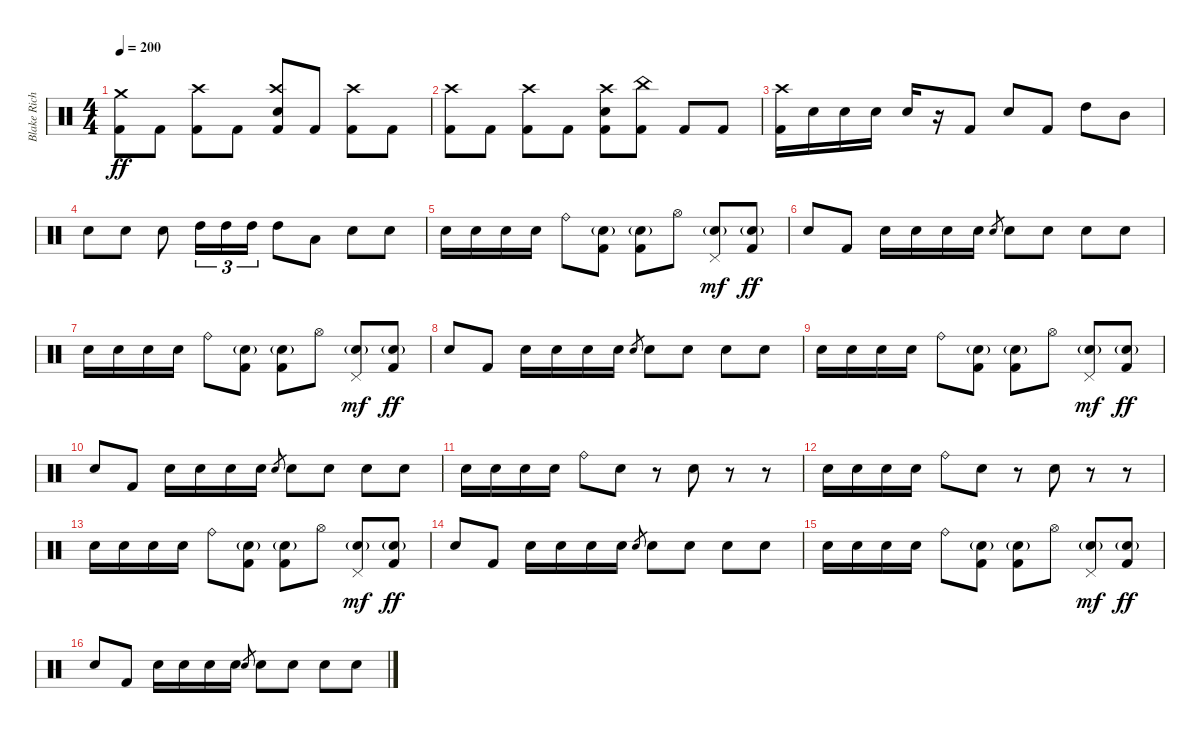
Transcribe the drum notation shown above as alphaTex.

\track ("Blake Richardson" "Blake Rich") {instrument percussion}
\staff {score}
\articulation defaults
\ts (4 4)
\tempo 200
\clef neutral
\ks c
("Crash medium (hit)" "Kick (hit) 2").8{dy ff} "Kick (hit) 2".8 ("Crash high (hit)" "Kick (hit) 2").8 "Kick (hit) 2".8 ("Crash high (hit)" "Electric Snare (hit)" "Kick (hit) 2").8 "Kick (hit) 2".8 ("Crash high (hit)" "Kick (hit) 2").8 "Kick (hit) 2".8 |
("Crash high (hit)" "Kick (hit) 2").8 "Kick (hit) 2".8 ("Crash high (hit)" "Kick (hit) 2").8 "Kick (hit) 2".8 ("Crash high (hit)" "Electric Snare (hit)" "Kick (hit) 2").8 ("China (hit)" "Kick (hit) 2").8 "Kick (hit) 2".8 "Kick (hit) 2".8 |
("Crash high (hit)" "Kick (hit) 2").16 "Electric Snare (hit)".16 "Electric Snare (hit)".16 "Electric Snare (hit)".16 "Electric Snare (hit)".16 r.16 "Kick (hit) 2".8 "Electric Snare (hit)".8 "Kick (hit) 2".8 "High Tom (hit)".8 "Mid Tom (hit)".8 |
"Electric Snare (hit)".8 "Electric Snare (hit)".8 "Electric Snare (hit)".8 "High Tom (hit)".16{tu (3 2)} "High Tom (hit)".16{tu (3 2)} "High Tom (hit)".16{tu (3 2)} "High Tom (hit)".8 "Low Tom (hit)".8 "Electric Snare (hit)".8 "Electric Snare (hit)".8 |
"Electric Snare (hit)".16 "Electric Snare (hit)".16 "Electric Snare (hit)".16 "Electric Snare (hit)".16 "Ride (bell)".8 ("Electric Snare (hit)"{g} "Kick (hit) 2").8 ("Electric Snare (hit)"{g} "Kick (hit) 2").8 "Hi-Hat (open)".8 ("Pedal Hi-Hat (hit)" "Electric Snare (hit)"{g}).8{dy mf} ("Electric Snare (hit)"{g} "Kick (hit) 2").8{dy ff} |
"Electric Snare (hit)".8 "Kick (hit) 2".8 "Electric Snare (hit)".16 "Electric Snare (hit)".16 "Electric Snare (hit)".16 "Electric Snare (hit)".16 "Electric Snare (hit)".8{gr} "Electric Snare (hit)".8 "Electric Snare (hit)".8 "Electric Snare (hit)".8 "Electric Snare (hit)".8 |
"Electric Snare (hit)".16 "Electric Snare (hit)".16 "Electric Snare (hit)".16 "Electric Snare (hit)".16 "Ride (bell)".8 ("Electric Snare (hit)"{g} "Kick (hit) 2").8 ("Electric Snare (hit)"{g} "Kick (hit) 2").8 "Hi-Hat (open)".8 ("Pedal Hi-Hat (hit)" "Electric Snare (hit)"{g}).8{dy mf} ("Electric Snare (hit)"{g} "Kick (hit) 2").8{dy ff} |
"Electric Snare (hit)".8 "Kick (hit) 2".8 "Electric Snare (hit)".16 "Electric Snare (hit)".16 "Electric Snare (hit)".16 "Electric Snare (hit)".16 "Electric Snare (hit)".8{gr} "Electric Snare (hit)".8 "Electric Snare (hit)".8 "Electric Snare (hit)".8 "Electric Snare (hit)".8 |
"Electric Snare (hit)".16 "Electric Snare (hit)".16 "Electric Snare (hit)".16 "Electric Snare (hit)".16 "Ride (bell)".8 ("Electric Snare (hit)"{g} "Kick (hit) 2").8 ("Electric Snare (hit)"{g} "Kick (hit) 2").8 "Hi-Hat (open)".8 ("Pedal Hi-Hat (hit)" "Electric Snare (hit)"{g}).8{dy mf} ("Electric Snare (hit)"{g} "Kick (hit) 2").8{dy ff} |
"Electric Snare (hit)".8 "Kick (hit) 2".8 "Electric Snare (hit)".16 "Electric Snare (hit)".16 "Electric Snare (hit)".16 "Electric Snare (hit)".16 "Electric Snare (hit)".8{gr} "Electric Snare (hit)".8 "Electric Snare (hit)".8 "Electric Snare (hit)".8 "Electric Snare (hit)".8 |
"Electric Snare (hit)".16 "Electric Snare (hit)".16 "Electric Snare (hit)".16 "Electric Snare (hit)".16 "Ride (bell)".8 "Electric Snare (hit)".8 r.8 "Electric Snare (hit)".8 r.8 r.8 |
"Electric Snare (hit)".16 "Electric Snare (hit)".16 "Electric Snare (hit)".16 "Electric Snare (hit)".16 "Ride (bell)".8 "Electric Snare (hit)".8 r.8 "Electric Snare (hit)".8 r.8 r.8 |
"Electric Snare (hit)".16 "Electric Snare (hit)".16 "Electric Snare (hit)".16 "Electric Snare (hit)".16 "Ride (bell)".8 ("Electric Snare (hit)"{g} "Kick (hit) 2").8 ("Electric Snare (hit)"{g} "Kick (hit) 2").8 "Hi-Hat (open)".8 ("Pedal Hi-Hat (hit)" "Electric Snare (hit)"{g}).8{dy mf} ("Electric Snare (hit)"{g} "Kick (hit) 2").8{dy ff} |
"Electric Snare (hit)".8 "Kick (hit) 2".8 "Electric Snare (hit)".16 "Electric Snare (hit)".16 "Electric Snare (hit)".16 "Electric Snare (hit)".16 "Electric Snare (hit)".8{gr} "Electric Snare (hit)".8 "Electric Snare (hit)".8 "Electric Snare (hit)".8 "Electric Snare (hit)".8 |
"Electric Snare (hit)".16 "Electric Snare (hit)".16 "Electric Snare (hit)".16 "Electric Snare (hit)".16 "Ride (bell)".8 ("Electric Snare (hit)"{g} "Kick (hit) 2").8 ("Electric Snare (hit)"{g} "Kick (hit) 2").8 "Hi-Hat (open)".8 ("Pedal Hi-Hat (hit)" "Electric Snare (hit)"{g}).8{dy mf} ("Electric Snare (hit)"{g} "Kick (hit) 2").8{dy ff} |
"Electric Snare (hit)".8 "Kick (hit) 2".8 "Electric Snare (hit)".16 "Electric Snare (hit)".16 "Electric Snare (hit)".16 "Electric Snare (hit)".16 "Electric Snare (hit)".8{gr} "Electric Snare (hit)".8 "Electric Snare (hit)".8 "Electric Snare (hit)".8 "Electric Snare (hit)".8
